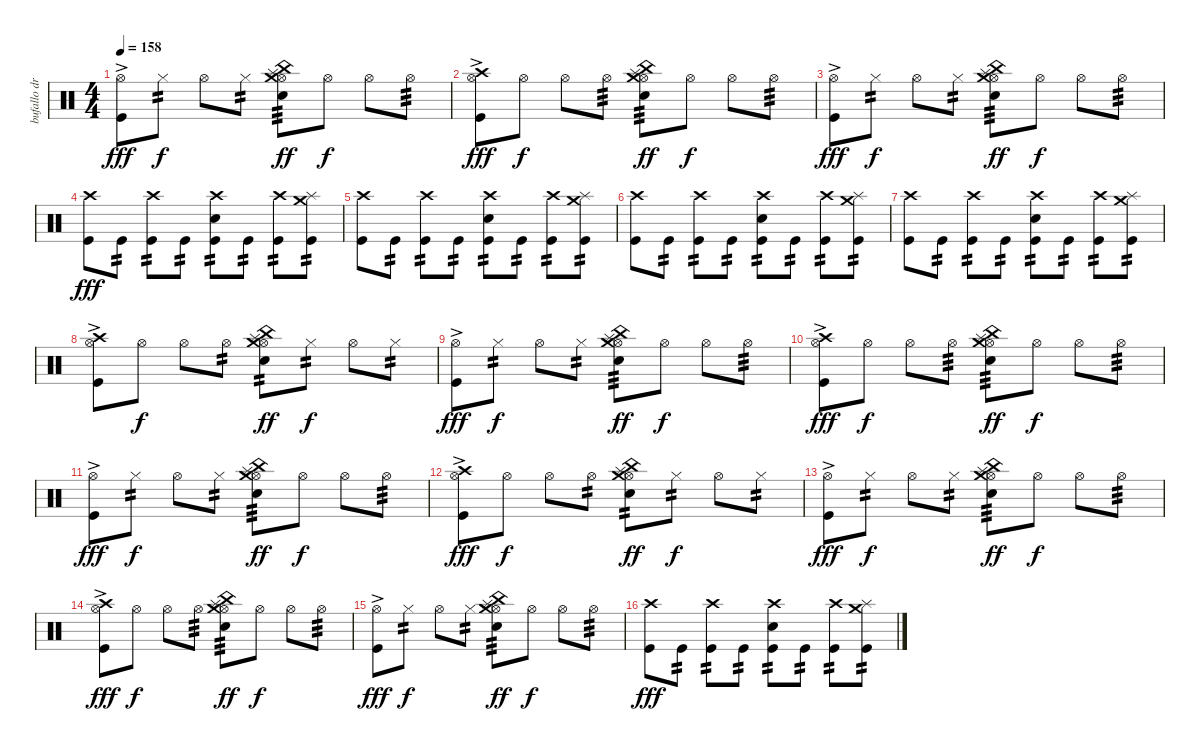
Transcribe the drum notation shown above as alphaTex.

\track ("bufallo drums" "bufallo dr") {instrument percussion}
\staff {score}
\articulation defaults
\ts (4 4)
\tempo 158
\clef neutral
\ks c
("Hi-Hat (open)" "Kick (hit)"{ac}).8{dy fff} "Hi-Hat (closed)".8{tp 2 dy f} "Hi-Hat (open)".8 "Hi-Hat (closed)".8{tp 2} ("Hi-Hat (open)" "Electric Snare (hit)" "Splash (hit)" "China (hit)" "Crash medium (hit)").8{tp 3 dy ff} "Hi-Hat (open)".8{dy f} "Hi-Hat (open)".8 "Hi-Hat (open)".8{tp 3} |
("Hi-Hat (open)" "Crash high (hit)" "Kick (hit)"{ac}).8{dy fff} "Hi-Hat (open)".8{dy f} "Hi-Hat (open)".8 "Hi-Hat (open)".8{tp 3} ("Hi-Hat (open)" "Electric Snare (hit)" "Splash (hit)" "China (hit)" "Crash medium (hit)").8{tp 3 dy ff} "Hi-Hat (open)".8{dy f} "Hi-Hat (open)".8 "Hi-Hat (open)".8{tp 3} |
("Hi-Hat (open)" "Kick (hit)"{ac}).8{dy fff} "Hi-Hat (closed)".8{tp 2 dy f} "Hi-Hat (open)".8 "Hi-Hat (closed)".8{tp 2} ("Hi-Hat (open)" "Electric Snare (hit)" "Splash (hit)" "China (hit)" "Crash medium (hit)").8{tp 3 dy ff} "Hi-Hat (open)".8{dy f} "Hi-Hat (open)".8 "Hi-Hat (open)".8{tp 3} |
("Crash high (hit)" "Kick (hit)").8{dy fff} "Kick (hit)".8{tp 2} ("Crash high (hit)" "Kick (hit)").8{tp 2} "Kick (hit)".8{tp 2} ("Crash high (hit)" "Electric Snare (hit)" "Kick (hit)").8{tp 2} "Kick (hit)".8{tp 2} ("Crash high (hit)" "Kick (hit)").8{tp 2} ("Splash (hit)" "Crash medium (hit)" "Kick (hit)").8{tp 2} |
("Crash high (hit)" "Kick (hit)").8 "Kick (hit)".8{tp 2} ("Crash high (hit)" "Kick (hit)").8{tp 2} "Kick (hit)".8{tp 2} ("Crash high (hit)" "Electric Snare (hit)" "Kick (hit)").8{tp 2} "Kick (hit)".8{tp 2} ("Crash high (hit)" "Kick (hit)").8{tp 2} ("Splash (hit)" "Crash medium (hit)" "Kick (hit)").8{tp 2} |
("Crash high (hit)" "Kick (hit)").8 "Kick (hit)".8{tp 2} ("Crash high (hit)" "Kick (hit)").8{tp 2} "Kick (hit)".8{tp 2} ("Crash high (hit)" "Electric Snare (hit)" "Kick (hit)").8{tp 2} "Kick (hit)".8{tp 2} ("Crash high (hit)" "Kick (hit)").8{tp 2} ("Splash (hit)" "Crash medium (hit)" "Kick (hit)").8{tp 2} |
("Crash high (hit)" "Kick (hit)").8 "Kick (hit)".8{tp 2} ("Crash high (hit)" "Kick (hit)").8{tp 2} "Kick (hit)".8{tp 2} ("Crash high (hit)" "Electric Snare (hit)" "Kick (hit)").8{tp 2} "Kick (hit)".8{tp 2} ("Crash high (hit)" "Kick (hit)").8{tp 2} ("Splash (hit)" "Crash medium (hit)" "Kick (hit)").8{tp 2} |
("Hi-Hat (open)" "Crash high (hit)" "Kick (hit)"{ac}).8 "Hi-Hat (open)".8{dy f} "Hi-Hat (open)".8 "Hi-Hat (open)".8{tp 2} ("Hi-Hat (open)" "Electric Snare (hit)" "Splash (hit)" "China (hit)" "Crash medium (hit)").8{tp 2 dy ff} "Hi-Hat (closed)".8{tp 2 dy f} "Hi-Hat (open)".8 "Hi-Hat (closed)".8{tp 2} |
("Hi-Hat (open)" "Kick (hit)"{ac}).8{dy fff} "Hi-Hat (closed)".8{tp 2 dy f} "Hi-Hat (open)".8 "Hi-Hat (closed)".8{tp 2} ("Hi-Hat (open)" "Electric Snare (hit)" "Splash (hit)" "China (hit)" "Crash medium (hit)").8{tp 3 dy ff} "Hi-Hat (open)".8{dy f} "Hi-Hat (open)".8 "Hi-Hat (open)".8{tp 3} |
("Hi-Hat (open)" "Crash high (hit)" "Kick (hit)"{ac}).8{dy fff} "Hi-Hat (open)".8{dy f} "Hi-Hat (open)".8 "Hi-Hat (open)".8{tp 3} ("Hi-Hat (open)" "Electric Snare (hit)" "Splash (hit)" "China (hit)" "Crash medium (hit)").8{tp 3 dy ff} "Hi-Hat (open)".8{dy f} "Hi-Hat (open)".8 "Hi-Hat (open)".8{tp 3} |
("Hi-Hat (open)" "Kick (hit)"{ac}).8{dy fff} "Hi-Hat (closed)".8{tp 2 dy f} "Hi-Hat (open)".8 "Hi-Hat (closed)".8{tp 2} ("Hi-Hat (open)" "Electric Snare (hit)" "Splash (hit)" "China (hit)" "Crash medium (hit)").8{tp 3 dy ff} "Hi-Hat (open)".8{dy f} "Hi-Hat (open)".8 "Hi-Hat (open)".8{tp 3} |
("Hi-Hat (open)" "Crash high (hit)" "Kick (hit)"{ac}).8{dy fff} "Hi-Hat (open)".8{dy f} "Hi-Hat (open)".8 "Hi-Hat (open)".8{tp 2} ("Hi-Hat (open)" "Electric Snare (hit)" "Splash (hit)" "China (hit)" "Crash medium (hit)").8{tp 2 dy ff} "Hi-Hat (closed)".8{tp 2 dy f} "Hi-Hat (open)".8 "Hi-Hat (closed)".8{tp 2} |
("Hi-Hat (open)" "Kick (hit)"{ac}).8{dy fff} "Hi-Hat (closed)".8{tp 2 dy f} "Hi-Hat (open)".8 "Hi-Hat (closed)".8{tp 2} ("Hi-Hat (open)" "Electric Snare (hit)" "Splash (hit)" "China (hit)" "Crash medium (hit)").8{tp 3 dy ff} "Hi-Hat (open)".8{dy f} "Hi-Hat (open)".8 "Hi-Hat (open)".8{tp 3} |
("Hi-Hat (open)" "Crash high (hit)" "Kick (hit)"{ac}).8{dy fff} "Hi-Hat (open)".8{dy f} "Hi-Hat (open)".8 "Hi-Hat (open)".8{tp 3} ("Hi-Hat (open)" "Electric Snare (hit)" "Splash (hit)" "China (hit)" "Crash medium (hit)").8{tp 3 dy ff} "Hi-Hat (open)".8{dy f} "Hi-Hat (open)".8 "Hi-Hat (open)".8{tp 3} |
("Hi-Hat (open)" "Kick (hit)"{ac}).8{dy fff} "Hi-Hat (closed)".8{tp 2 dy f} "Hi-Hat (open)".8 "Hi-Hat (closed)".8{tp 2} ("Hi-Hat (open)" "Electric Snare (hit)" "Splash (hit)" "China (hit)" "Crash medium (hit)").8{tp 3 dy ff} "Hi-Hat (open)".8{dy f} "Hi-Hat (open)".8 "Hi-Hat (open)".8{tp 3} |
("Crash high (hit)" "Kick (hit)").8{dy fff} "Kick (hit)".8{tp 2} ("Crash high (hit)" "Kick (hit)").8{tp 2} "Kick (hit)".8{tp 2} ("Crash high (hit)" "Electric Snare (hit)" "Kick (hit)").8{tp 2} "Kick (hit)".8{tp 2} ("Crash high (hit)" "Kick (hit)").8{tp 2} ("Splash (hit)" "Crash medium (hit)" "Kick (hit)").8{tp 2}
